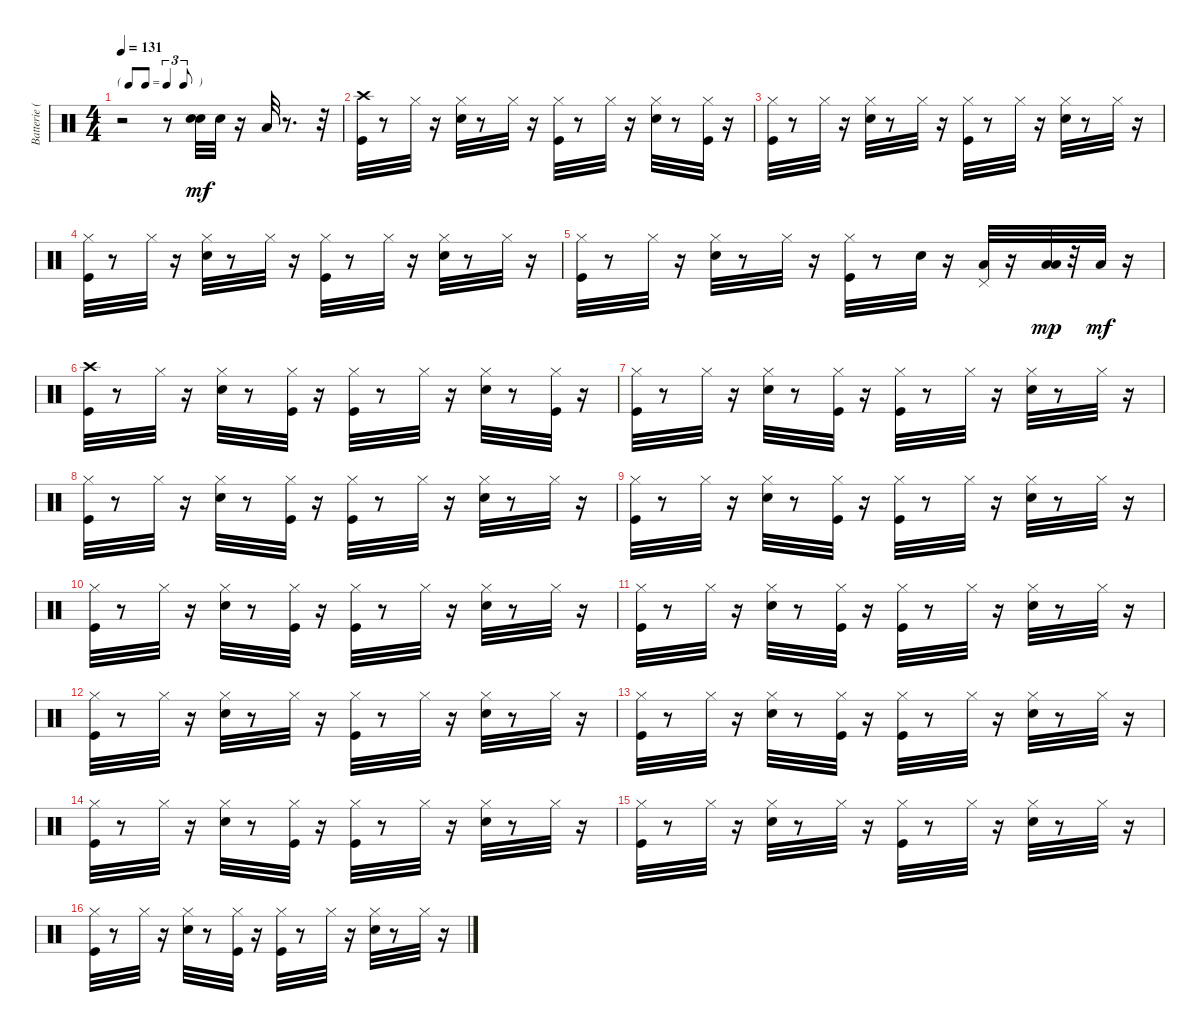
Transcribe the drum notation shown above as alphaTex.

\track ("Batterie (midi)" "Batterie (") {instrument percussion}
\staff {score}
\articulation defaults
\ts (4 4)
\tf triplet8th
\tempo 131
\clef neutral
\ks c
r.2{dy mf} r.8 ("Electric Snare (hit)" "Electric Snare (hit)").32 "Electric Snare (hit)".32 r.16 "Low Tom (hit)".32 r.8{d} r.32 |
("Kick (hit)" "Crash high (hit)").32 r.8 "Hi-Hat (closed)".32 r.16 ("Electric Snare (hit)" "Hi-Hat (closed)").32 r.8 "Hi-Hat (closed)".32 r.16 ("Kick (hit)" "Hi-Hat (closed)").32 r.8 "Hi-Hat (closed)".32 r.16 ("Electric Snare (hit)" "Hi-Hat (closed)").32 r.8 ("Kick (hit)" "Hi-Hat (closed)").32 r.16 |
("Kick (hit)" "Hi-Hat (closed)").32 r.8 "Hi-Hat (closed)".32 r.16 ("Electric Snare (hit)" "Hi-Hat (closed)").32 r.8 "Hi-Hat (closed)".32 r.16 ("Kick (hit)" "Hi-Hat (closed)").32 r.8 "Hi-Hat (closed)".32 r.16 ("Electric Snare (hit)" "Hi-Hat (closed)").32 r.8 "Hi-Hat (closed)".32 r.16 |
("Kick (hit)" "Hi-Hat (closed)").32 r.8 "Hi-Hat (closed)".32 r.16 ("Electric Snare (hit)" "Hi-Hat (closed)").32 r.8 "Hi-Hat (closed)".32 r.16 ("Kick (hit)" "Hi-Hat (closed)").32 r.8 "Hi-Hat (closed)".32 r.16 ("Electric Snare (hit)" "Hi-Hat (closed)").32 r.8 "Hi-Hat (closed)".32 r.16 |
("Kick (hit)" "Hi-Hat (closed)").32 r.8 "Hi-Hat (closed)".32 r.16 ("Electric Snare (hit)" "Hi-Hat (closed)").32 r.8 "Hi-Hat (closed)".32 r.16 ("Kick (hit)" "Hi-Hat (closed)").32 r.8 "Electric Snare (hit)".32 r.16 ("Pedal Hi-Hat (hit)" "Low Tom (hit)").32 r.16 ("Low Floor Tom (hit)" "Low Floor Tom (hit)").32{dy mp} r.32 "Low Floor Tom (hit)".32{dy mf} r.16 |
("Kick (hit)" "Crash high (hit)").32 r.8 "Hi-Hat (closed)".32 r.16 ("Electric Snare (hit)" "Hi-Hat (closed)").32 r.8 ("Kick (hit)" "Hi-Hat (closed)").32 r.16 ("Kick (hit)" "Hi-Hat (closed)").32 r.8 "Hi-Hat (closed)".32 r.16 ("Electric Snare (hit)" "Hi-Hat (closed)").32 r.8 ("Kick (hit)" "Hi-Hat (closed)").32 r.16 |
("Kick (hit)" "Hi-Hat (closed)").32 r.8 "Hi-Hat (closed)".32 r.16 ("Electric Snare (hit)" "Hi-Hat (closed)").32 r.8 ("Kick (hit)" "Hi-Hat (closed)").32 r.16 ("Kick (hit)" "Hi-Hat (closed)").32 r.8 "Hi-Hat (closed)".32 r.16 ("Electric Snare (hit)" "Hi-Hat (closed)").32 r.8 "Hi-Hat (closed)".32 r.16 |
("Kick (hit)" "Hi-Hat (closed)").32 r.8 "Hi-Hat (closed)".32 r.16 ("Electric Snare (hit)" "Hi-Hat (closed)").32 r.8 ("Kick (hit)" "Hi-Hat (closed)").32 r.16 ("Kick (hit)" "Hi-Hat (closed)").32 r.8 "Hi-Hat (closed)".32 r.16 ("Electric Snare (hit)" "Hi-Hat (closed)").32 r.8 "Hi-Hat (closed)".32 r.16 |
("Kick (hit)" "Hi-Hat (closed)").32 r.8 "Hi-Hat (closed)".32 r.16 ("Electric Snare (hit)" "Hi-Hat (closed)").32 r.8 ("Kick (hit)" "Hi-Hat (closed)").32 r.16 ("Kick (hit)" "Hi-Hat (closed)").32 r.8 "Hi-Hat (closed)".32 r.16 ("Electric Snare (hit)" "Hi-Hat (closed)").32 r.8 "Hi-Hat (closed)".32 r.16 |
("Kick (hit)" "Hi-Hat (closed)").32 r.8 "Hi-Hat (closed)".32 r.16 ("Electric Snare (hit)" "Hi-Hat (closed)").32 r.8 ("Kick (hit)" "Hi-Hat (closed)").32 r.16 ("Kick (hit)" "Hi-Hat (closed)").32 r.8 "Hi-Hat (closed)".32 r.16 ("Electric Snare (hit)" "Hi-Hat (closed)").32 r.8 "Hi-Hat (closed)".32 r.16 |
("Kick (hit)" "Hi-Hat (closed)").32 r.8 "Hi-Hat (closed)".32 r.16 ("Electric Snare (hit)" "Hi-Hat (closed)").32 r.8 ("Kick (hit)" "Hi-Hat (closed)").32 r.16 ("Kick (hit)" "Hi-Hat (closed)").32 r.8 "Hi-Hat (closed)".32 r.16 ("Electric Snare (hit)" "Hi-Hat (closed)").32 r.8 "Hi-Hat (closed)".32 r.16 |
("Kick (hit)" "Hi-Hat (closed)").32 r.8 "Hi-Hat (closed)".32 r.16 ("Electric Snare (hit)" "Hi-Hat (closed)").32 r.8 "Hi-Hat (closed)".32 r.16 ("Kick (hit)" "Hi-Hat (closed)").32 r.8 "Hi-Hat (closed)".32 r.16 ("Electric Snare (hit)" "Hi-Hat (closed)").32 r.8 "Hi-Hat (closed)".32 r.16 |
("Kick (hit)" "Hi-Hat (closed)").32 r.8 "Hi-Hat (closed)".32 r.16 ("Electric Snare (hit)" "Hi-Hat (closed)").32 r.8 ("Kick (hit)" "Hi-Hat (closed)").32 r.16 ("Kick (hit)" "Hi-Hat (closed)").32 r.8 "Hi-Hat (closed)".32 r.16 ("Electric Snare (hit)" "Hi-Hat (closed)").32 r.8 "Hi-Hat (closed)".32 r.16 |
("Kick (hit)" "Hi-Hat (closed)").32 r.8 "Hi-Hat (closed)".32 r.16 ("Electric Snare (hit)" "Hi-Hat (closed)").32 r.8 ("Kick (hit)" "Hi-Hat (closed)").32 r.16 ("Kick (hit)" "Hi-Hat (closed)").32 r.8 "Hi-Hat (closed)".32 r.16 ("Electric Snare (hit)" "Hi-Hat (closed)").32 r.8 "Hi-Hat (closed)".32 r.16 |
("Kick (hit)" "Hi-Hat (closed)").32 r.8 "Hi-Hat (closed)".32 r.16 ("Electric Snare (hit)" "Hi-Hat (closed)").32 r.8 "Hi-Hat (closed)".32 r.16 ("Kick (hit)" "Hi-Hat (closed)").32 r.8 "Hi-Hat (closed)".32 r.16 ("Electric Snare (hit)" "Hi-Hat (closed)").32 r.8 "Hi-Hat (closed)".32 r.16 |
("Kick (hit)" "Hi-Hat (closed)").32 r.8 "Hi-Hat (closed)".32 r.16 ("Electric Snare (hit)" "Hi-Hat (closed)").32 r.8 ("Kick (hit)" "Hi-Hat (closed)").32 r.16 ("Kick (hit)" "Hi-Hat (closed)").32 r.8 "Hi-Hat (closed)".32 r.16 ("Electric Snare (hit)" "Hi-Hat (closed)").32 r.8 "Hi-Hat (closed)".32 r.16
